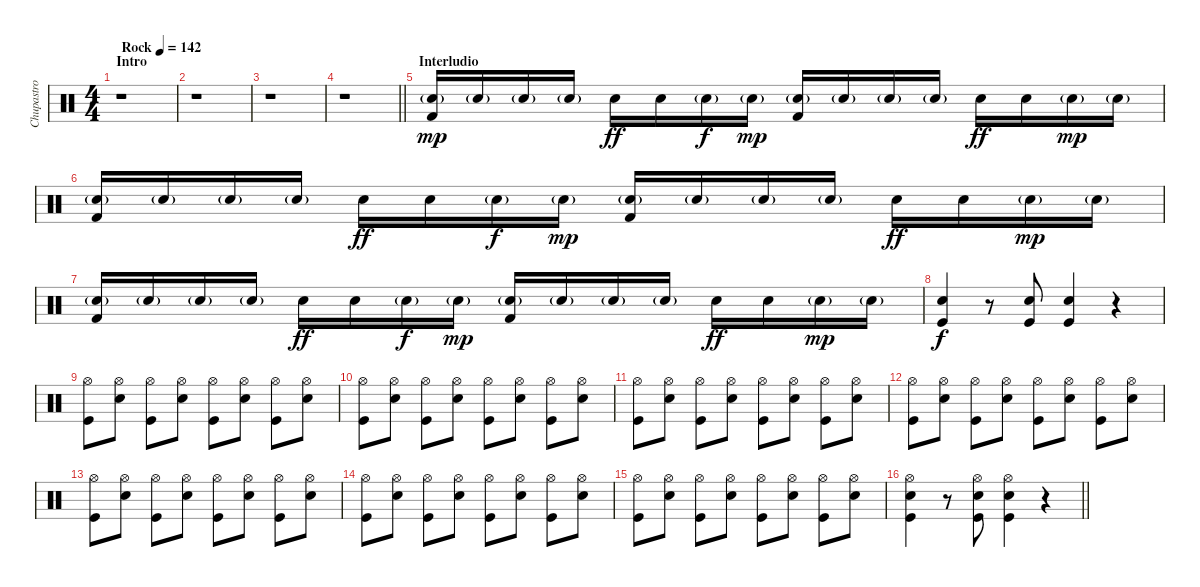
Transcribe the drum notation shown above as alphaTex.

\track ("Chupastro" "Chupastro") {instrument percussion}
\staff {score}
\articulation defaults
\ts (4 4)
\section ("" "Intro")
\tempo (142 "Rock")
\clef neutral
\ks c
r.1{dy mp} |
r.1 |
r.1 |
\barLineRight lightlight
r.1 |
\section ("" "Interludio")
("Kick (hit) 2" "Electric Snare (hit)"{g}).16 "Electric Snare (hit)"{g}.16 "Electric Snare (hit)"{g}.16 "Electric Snare (hit)"{g}.16 "Electric Snare (hit)".16{dy ff} "Electric Snare (hit)".16 "Electric Snare (hit)"{g}.16{dy f} "Electric Snare (hit)"{g}.16{dy mp} ("Kick (hit) 2" "Electric Snare (hit)"{g}).16 "Electric Snare (hit)"{g}.16 "Electric Snare (hit)"{g}.16 "Electric Snare (hit)"{g}.16 "Electric Snare (hit)".16{dy ff} "Electric Snare (hit)".16 "Electric Snare (hit)"{g}.16{dy mp} "Electric Snare (hit)"{g}.16 |
("Kick (hit) 2" "Electric Snare (hit)"{g}).16 "Electric Snare (hit)"{g}.16 "Electric Snare (hit)"{g}.16 "Electric Snare (hit)"{g}.16 "Electric Snare (hit)".16{dy ff} "Electric Snare (hit)".16 "Electric Snare (hit)"{g}.16{dy f} "Electric Snare (hit)"{g}.16{dy mp} ("Kick (hit) 2" "Electric Snare (hit)"{g}).16 "Electric Snare (hit)"{g}.16 "Electric Snare (hit)"{g}.16 "Electric Snare (hit)"{g}.16 "Electric Snare (hit)".16{dy ff} "Electric Snare (hit)".16 "Electric Snare (hit)"{g}.16{dy mp} "Electric Snare (hit)"{g}.16 |
("Kick (hit) 2" "Electric Snare (hit)"{g}).16 "Electric Snare (hit)"{g}.16 "Electric Snare (hit)"{g}.16 "Electric Snare (hit)"{g}.16 "Electric Snare (hit)".16{dy ff} "Electric Snare (hit)".16 "Electric Snare (hit)"{g}.16{dy f} "Electric Snare (hit)"{g}.16{dy mp} ("Kick (hit) 2" "Electric Snare (hit)"{g}).16 "Electric Snare (hit)"{g}.16 "Electric Snare (hit)"{g}.16 "Electric Snare (hit)"{g}.16 "Electric Snare (hit)".16{dy ff} "Electric Snare (hit)".16 "Electric Snare (hit)"{g}.16{dy mp} "Electric Snare (hit)"{g}.16 |
("Snare (hit) 2" "Kick (hit)").4{dy f} r.8 ("Snare (hit) 2" "Kick (hit)").8 ("Snare (hit) 2" "Kick (hit)").4 r.4 |
("Hi-Hat (open)" "Kick (hit)").8 ("Hi-Hat (open)" "Snare (hit) 2").8 ("Hi-Hat (open)" "Kick (hit)").8 ("Hi-Hat (open)" "Snare (hit) 2").8 ("Hi-Hat (open)" "Kick (hit)").8 ("Hi-Hat (open)" "Snare (hit) 2").8 ("Hi-Hat (open)" "Kick (hit)").8 ("Hi-Hat (open)" "Snare (hit) 2").8 |
("Hi-Hat (open)" "Kick (hit)").8 ("Hi-Hat (open)" "Snare (hit) 2").8 ("Hi-Hat (open)" "Kick (hit)").8 ("Hi-Hat (open)" "Snare (hit) 2").8 ("Hi-Hat (open)" "Kick (hit)").8 ("Hi-Hat (open)" "Snare (hit) 2").8 ("Hi-Hat (open)" "Kick (hit)").8 ("Hi-Hat (open)" "Snare (hit) 2").8 |
("Hi-Hat (open)" "Kick (hit)").8 ("Hi-Hat (open)" "Snare (hit) 2").8 ("Hi-Hat (open)" "Kick (hit)").8 ("Hi-Hat (open)" "Snare (hit) 2").8 ("Hi-Hat (open)" "Kick (hit)").8 ("Hi-Hat (open)" "Snare (hit) 2").8 ("Hi-Hat (open)" "Kick (hit)").8 ("Hi-Hat (open)" "Snare (hit) 2").8 |
("Hi-Hat (open)" "Kick (hit)").8 ("Hi-Hat (open)" "Snare (hit) 2").8 ("Hi-Hat (open)" "Kick (hit)").8 ("Hi-Hat (open)" "Snare (hit) 2").8 ("Hi-Hat (open)" "Kick (hit)").8 ("Hi-Hat (open)" "Snare (hit) 2").8 ("Hi-Hat (open)" "Kick (hit)").8 ("Hi-Hat (open)" "Snare (hit) 2").8 |
("Hi-Hat (open)" "Kick (hit)").8 ("Hi-Hat (open)" "Snare (hit) 2").8 ("Hi-Hat (open)" "Kick (hit)").8 ("Hi-Hat (open)" "Snare (hit) 2").8 ("Hi-Hat (open)" "Kick (hit)").8 ("Hi-Hat (open)" "Snare (hit) 2").8 ("Hi-Hat (open)" "Kick (hit)").8 ("Hi-Hat (open)" "Snare (hit) 2").8 |
("Hi-Hat (open)" "Kick (hit)").8 ("Hi-Hat (open)" "Snare (hit) 2").8 ("Hi-Hat (open)" "Kick (hit)").8 ("Hi-Hat (open)" "Snare (hit) 2").8 ("Hi-Hat (open)" "Kick (hit)").8 ("Hi-Hat (open)" "Snare (hit) 2").8 ("Hi-Hat (open)" "Kick (hit)").8 ("Hi-Hat (open)" "Snare (hit) 2").8 |
("Hi-Hat (open)" "Kick (hit)").8 ("Hi-Hat (open)" "Snare (hit) 2").8 ("Hi-Hat (open)" "Kick (hit)").8 ("Hi-Hat (open)" "Snare (hit) 2").8 ("Hi-Hat (open)" "Kick (hit)").8 ("Hi-Hat (open)" "Snare (hit) 2").8 ("Hi-Hat (open)" "Kick (hit)").8 ("Hi-Hat (open)" "Snare (hit) 2").8 |
\barLineRight lightlight
("Hi-Hat (open)" "Snare (hit) 2" "Kick (hit)").4 r.8 ("Hi-Hat (open)" "Snare (hit) 2" "Kick (hit)").8 ("Hi-Hat (open)" "Snare (hit) 2" "Kick (hit)").4 r.4
